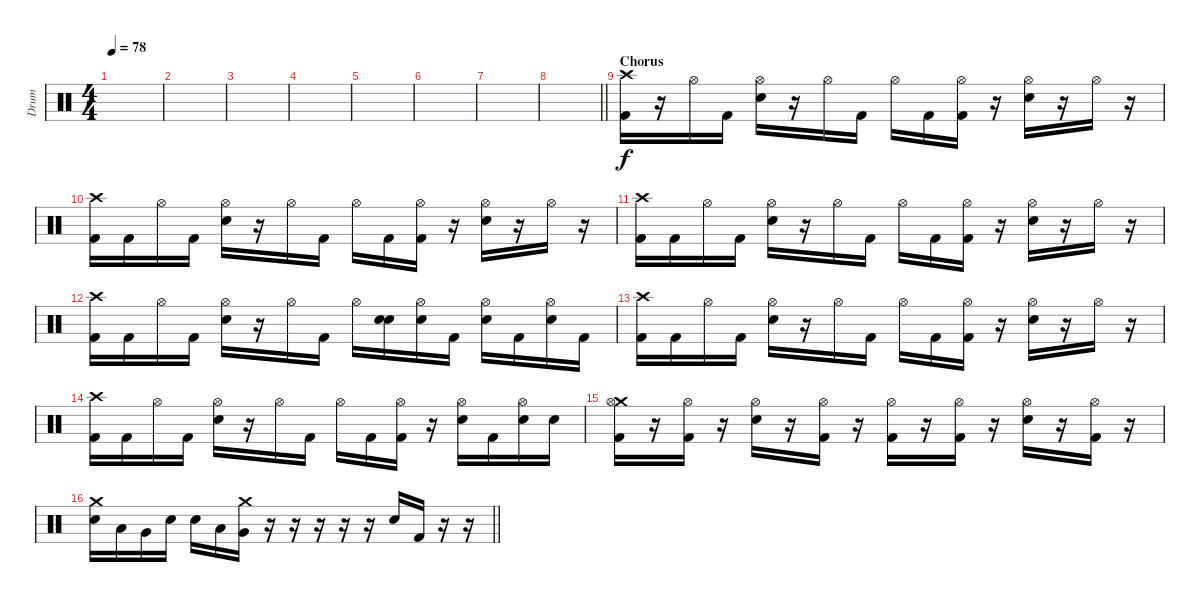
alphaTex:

\track ("Drum" "Drum") {instrument percussion}
\staff {score}
\articulation defaults
\ts (4 4)
\tempo 78
\clef neutral
\ks c
|
|
|
|
|
|
|
\barLineRight lightlight
|
\section ("" "Chorus")
("Crash high (hit)" "Kick (hit) 2").16 r.16 "Hi-Hat (open)".16 "Kick (hit) 2".16 ("Electric Snare (hit)" "Hi-Hat (open)").16 r.16 "Hi-Hat (open)".16 "Kick (hit) 2".16 "Hi-Hat (open)".16 "Kick (hit) 2".16 ("Kick (hit) 2" "Hi-Hat (open)").16 r.16 ("Electric Snare (hit)" "Hi-Hat (open)").16 r.16 "Hi-Hat (open)".16 r.16 |
("Crash high (hit)" "Kick (hit) 2").16 "Kick (hit) 2".16 "Hi-Hat (open)".16 "Kick (hit) 2".16 ("Electric Snare (hit)" "Hi-Hat (open)").16 r.16 "Hi-Hat (open)".16 "Kick (hit) 2".16 "Hi-Hat (open)".16 "Kick (hit) 2".16 ("Kick (hit) 2" "Hi-Hat (open)").16 r.16 ("Electric Snare (hit)" "Hi-Hat (open)").16 r.16 "Hi-Hat (open)".16 r.16 |
("Crash high (hit)" "Kick (hit) 2").16 "Kick (hit) 2".16 "Hi-Hat (open)".16 "Kick (hit) 2".16 ("Electric Snare (hit)" "Hi-Hat (open)").16 r.16 "Hi-Hat (open)".16 "Kick (hit) 2".16 "Hi-Hat (open)".16 "Kick (hit) 2".16 ("Kick (hit) 2" "Hi-Hat (open)").16 r.16 ("Electric Snare (hit)" "Hi-Hat (open)").16 r.16 "Hi-Hat (open)".16 r.16 |
("Crash high (hit)" "Kick (hit) 2").16 "Kick (hit) 2".16 "Hi-Hat (open)".16 "Kick (hit) 2".16 ("Electric Snare (hit)" "Hi-Hat (open)").16 r.16 "Hi-Hat (open)".16 "Kick (hit) 2".16 "Hi-Hat (open)".16 ("Electric Snare (hit)" "Electric Snare (hit)").16 ("Electric Snare (hit)" "Hi-Hat (open)").16 "Kick (hit) 2".16 ("Electric Snare (hit)" "Hi-Hat (open)").16 "Kick (hit) 2".16 ("Electric Snare (hit)" "Hi-Hat (open)").16 "Kick (hit) 2".16 |
("Crash high (hit)" "Kick (hit) 2").16 "Kick (hit) 2".16 "Hi-Hat (open)".16 "Kick (hit) 2".16 ("Electric Snare (hit)" "Hi-Hat (open)").16 r.16 "Hi-Hat (open)".16 "Kick (hit) 2".16 "Hi-Hat (open)".16 "Kick (hit) 2".16 ("Kick (hit) 2" "Hi-Hat (open)").16 r.16 ("Electric Snare (hit)" "Hi-Hat (open)").16 r.16 "Hi-Hat (open)".16 r.16 |
("Crash high (hit)" "Kick (hit) 2").16 "Kick (hit) 2".16 "Hi-Hat (open)".16 "Kick (hit) 2".16 ("Electric Snare (hit)" "Hi-Hat (open)").16 r.16 "Hi-Hat (open)".16 "Kick (hit) 2".16 "Hi-Hat (open)".16 "Kick (hit) 2".16 ("Kick (hit) 2" "Hi-Hat (open)").16 r.16 ("Electric Snare (hit)" "Hi-Hat (open)").16 "Kick (hit) 2".16 ("Electric Snare (hit)" "Hi-Hat (open)").16 "Electric Snare (hit)".16 |
("Crash medium (hit)" "Kick (hit) 2" "Hi-Hat (open)").16 r.16 ("Kick (hit) 2" "Hi-Hat (open)").16 r.16 ("Electric Snare (hit)" "Hi-Hat (open)").16 r.16 ("Kick (hit) 2" "Hi-Hat (open)").16 r.16 ("Kick (hit) 2" "Hi-Hat (open)").16 r.16 ("Kick (hit) 2" "Hi-Hat (open)").16 r.16 ("Electric Snare (hit)" "Hi-Hat (open)").16 r.16 ("Kick (hit) 2" "Hi-Hat (open)").16 r.16 |
\barLineRight lightlight
("Crash medium (hit)" "Electric Snare (hit)").16 "Low Tom (hit)".16 "Very Low Tom (hit)".16 "Electric Snare (hit)".16 "Electric Snare (hit)".16 "Low Tom (hit)".16 ("Crash medium (hit)" "Very Low Tom (hit)").16 r.16 r.16 r.16 r.16 r.16 "Electric Snare (hit)".16 "Kick (hit) 2".16 r.16 r.16
